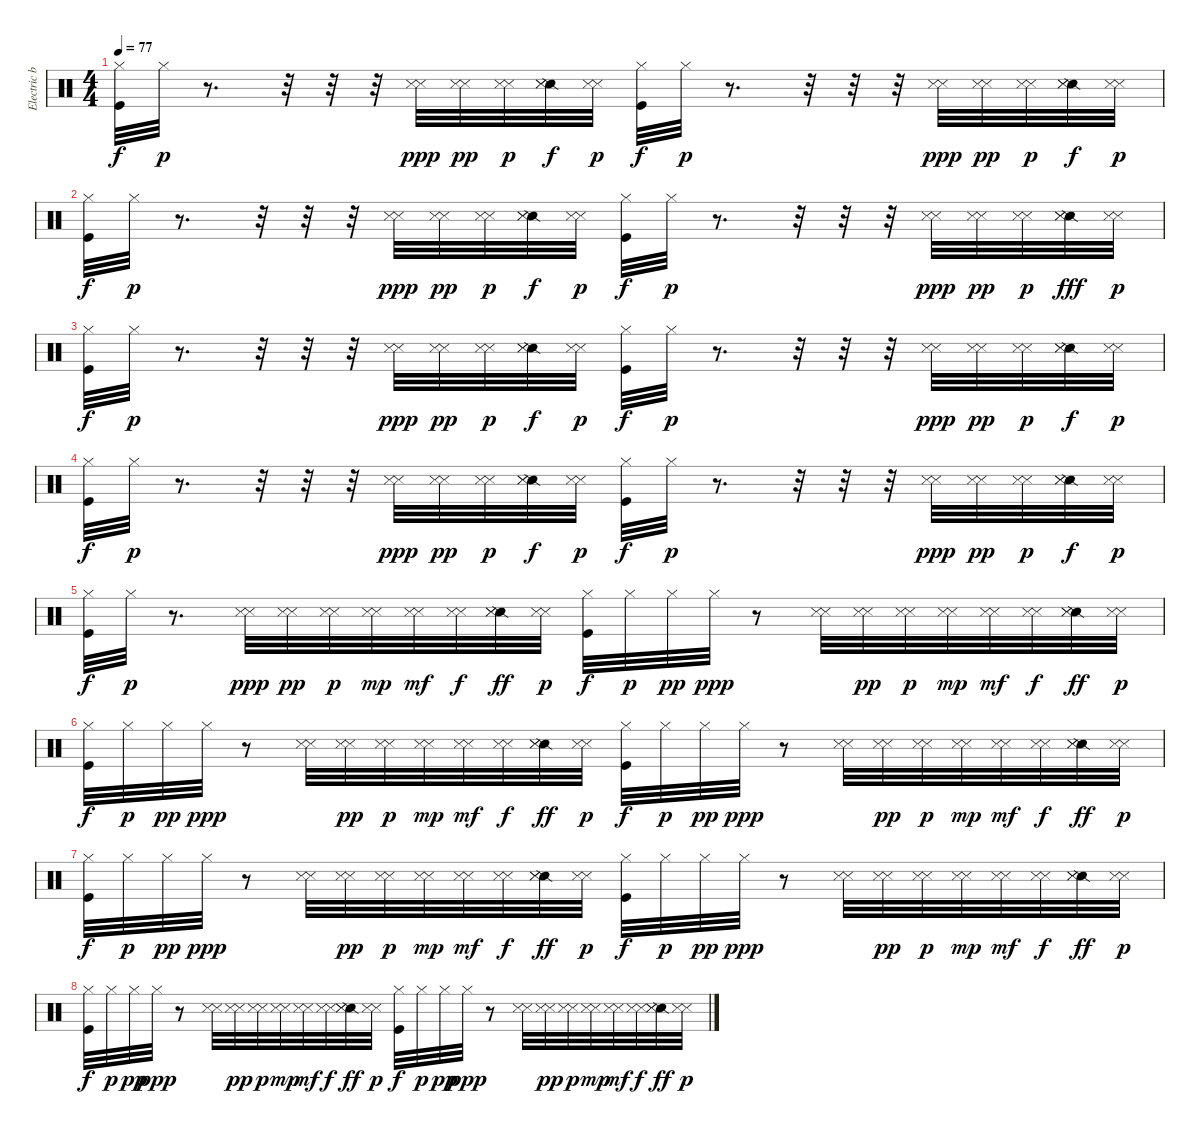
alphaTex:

\track ("Electric beat" "Electric b") {instrument percussion}
\staff {score}
\articulation defaults
\ts (4 4)
\tempo 77
\clef neutral
\ks c
("Hi-Hat (closed)" "Kick (hit)").32{dy f} "Hi-Hat (closed)".32{dy p} r.8{d} r.32 r.32 r.32 ("Snare (side stick) 3" "Metronome (hit)").32{dy ppp} ("Snare (side stick) 3" "Metronome (hit)").32{dy pp} ("Snare (side stick) 3" "Metronome (hit)").32{dy p} ("Snare (side stick) 2" "Snare (side stick) 3" "Metronome (hit)").32{dy f} ("Snare (side stick) 3" "Metronome (hit)").32{dy p} ("Hi-Hat (closed)" "Kick (hit)").32{dy f} "Hi-Hat (closed)".32{dy p} r.8{d} r.32 r.32 r.32 ("Snare (side stick) 3" "Metronome (hit)").32{dy ppp} ("Snare (side stick) 3" "Metronome (hit)").32{dy pp} ("Snare (side stick) 3" "Metronome (hit)").32{dy p} ("Snare (side stick) 2" "Snare (side stick) 3" "Metronome (hit)").32{dy f} ("Snare (side stick) 3" "Metronome (hit)").32{dy p} |
("Hi-Hat (closed)" "Kick (hit)").32{dy f} "Hi-Hat (closed)".32{dy p} r.8{d} r.32 r.32 r.32 ("Snare (side stick) 3" "Metronome (hit)").32{dy ppp} ("Snare (side stick) 3" "Metronome (hit)").32{dy pp} ("Snare (side stick) 3" "Metronome (hit)").32{dy p} ("Snare (side stick) 2" "Snare (side stick) 3" "Metronome (hit)").32{dy f} ("Snare (side stick) 3" "Metronome (hit)").32{dy p} ("Hi-Hat (closed)" "Kick (hit)").32{dy f} "Hi-Hat (closed)".32{dy p} r.8{d} r.32 r.32 r.32 ("Snare (side stick) 3" "Metronome (hit)").32{dy ppp} ("Snare (side stick) 3" "Metronome (hit)").32{dy pp} ("Snare (side stick) 3" "Metronome (hit)").32{dy p} ("Snare (side stick) 2" "Snare (side stick) 3" "Metronome (hit)").32{dy fff} ("Snare (side stick) 3" "Metronome (hit)").32{dy p} |
("Hi-Hat (closed)" "Kick (hit)").32{dy f} "Hi-Hat (closed)".32{dy p} r.8{d} r.32 r.32 r.32 ("Snare (side stick) 3" "Metronome (hit)").32{dy ppp} ("Snare (side stick) 3" "Metronome (hit)").32{dy pp} ("Snare (side stick) 3" "Metronome (hit)").32{dy p} ("Snare (side stick) 2" "Snare (side stick) 3" "Metronome (hit)").32{dy f} ("Snare (side stick) 3" "Metronome (hit)").32{dy p} ("Hi-Hat (closed)" "Kick (hit)").32{dy f} "Hi-Hat (closed)".32{dy p} r.8{d} r.32 r.32 r.32 ("Snare (side stick) 3" "Metronome (hit)").32{dy ppp} ("Snare (side stick) 3" "Metronome (hit)").32{dy pp} ("Snare (side stick) 3" "Metronome (hit)").32{dy p} ("Snare (side stick) 2" "Snare (side stick) 3" "Metronome (hit)").32{dy f} ("Snare (side stick) 3" "Metronome (hit)").32{dy p} |
("Hi-Hat (closed)" "Kick (hit)").32{dy f} "Hi-Hat (closed)".32{dy p} r.8{d} r.32 r.32 r.32 ("Snare (side stick) 3" "Metronome (hit)").32{dy ppp} ("Snare (side stick) 3" "Metronome (hit)").32{dy pp} ("Snare (side stick) 3" "Metronome (hit)").32{dy p} ("Snare (side stick) 2" "Snare (side stick) 3" "Metronome (hit)").32{dy f} ("Snare (side stick) 3" "Metronome (hit)").32{dy p} ("Hi-Hat (closed)" "Kick (hit)").32{dy f} "Hi-Hat (closed)".32{dy p} r.8{d} r.32 r.32 r.32 ("Snare (side stick) 3" "Metronome (hit)").32{dy ppp} ("Snare (side stick) 3" "Metronome (hit)").32{dy pp} ("Snare (side stick) 3" "Metronome (hit)").32{dy p} ("Snare (side stick) 2" "Snare (side stick) 3" "Metronome (hit)").32{dy f} ("Snare (side stick) 3" "Metronome (hit)").32{dy p} |
("Hi-Hat (closed)" "Kick (hit)").32{dy f} "Hi-Hat (closed)".32{dy p} r.8{d} ("Snare (side stick) 3" "Metronome (hit)").32{dy ppp} ("Snare (side stick) 3" "Metronome (hit)").32{dy pp} ("Snare (side stick) 3" "Metronome (hit)").32{dy p} ("Snare (side stick) 3" "Metronome (hit)").32{dy mp} ("Snare (side stick) 3" "Metronome (hit)").32{dy mf} ("Snare (side stick) 3" "Metronome (hit)").32{dy f} ("Snare (side stick) 2" "Snare (side stick) 3" "Metronome (hit)").32{dy ff} ("Snare (side stick) 3" "Metronome (hit)").32{dy p} ("Hi-Hat (closed)" "Kick (hit)").32{dy f} "Hi-Hat (closed)".32{dy p} "Hi-Hat (closed)".32{dy pp} "Hi-Hat (closed)".32{dy ppp} r.8 ("Snare (side stick) 3" "Metronome (hit)").32 ("Snare (side stick) 3" "Metronome (hit)").32{dy pp} ("Snare (side stick) 3" "Metronome (hit)").32{dy p} ("Snare (side stick) 3" "Metronome (hit)").32{dy mp} ("Snare (side stick) 3" "Metronome (hit)").32{dy mf} ("Snare (side stick) 3" "Metronome (hit)").32{dy f} ("Snare (side stick) 2" "Snare (side stick) 3" "Metronome (hit)").32{dy ff} ("Snare (side stick) 3" "Metronome (hit)").32{dy p} |
("Hi-Hat (closed)" "Kick (hit)").32{dy f} "Hi-Hat (closed)".32{dy p} "Hi-Hat (closed)".32{dy pp} "Hi-Hat (closed)".32{dy ppp} r.8 ("Snare (side stick) 3" "Metronome (hit)").32 ("Snare (side stick) 3" "Metronome (hit)").32{dy pp} ("Snare (side stick) 3" "Metronome (hit)").32{dy p} ("Snare (side stick) 3" "Metronome (hit)").32{dy mp} ("Snare (side stick) 3" "Metronome (hit)").32{dy mf} ("Snare (side stick) 3" "Metronome (hit)").32{dy f} ("Snare (side stick) 2" "Snare (side stick) 3" "Metronome (hit)").32{dy ff} ("Snare (side stick) 3" "Metronome (hit)").32{dy p} ("Hi-Hat (closed)" "Kick (hit)").32{dy f} "Hi-Hat (closed)".32{dy p} "Hi-Hat (closed)".32{dy pp} "Hi-Hat (closed)".32{dy ppp} r.8 ("Snare (side stick) 3" "Metronome (hit)").32 ("Snare (side stick) 3" "Metronome (hit)").32{dy pp} ("Snare (side stick) 3" "Metronome (hit)").32{dy p} ("Snare (side stick) 3" "Metronome (hit)").32{dy mp} ("Snare (side stick) 3" "Metronome (hit)").32{dy mf} ("Snare (side stick) 3" "Metronome (hit)").32{dy f} ("Snare (side stick) 2" "Snare (side stick) 3" "Metronome (hit)").32{dy ff} ("Snare (side stick) 3" "Metronome (hit)").32{dy p} |
("Hi-Hat (closed)" "Kick (hit)").32{dy f} "Hi-Hat (closed)".32{dy p} "Hi-Hat (closed)".32{dy pp} "Hi-Hat (closed)".32{dy ppp} r.8 ("Snare (side stick) 3" "Metronome (hit)").32 ("Snare (side stick) 3" "Metronome (hit)").32{dy pp} ("Snare (side stick) 3" "Metronome (hit)").32{dy p} ("Snare (side stick) 3" "Metronome (hit)").32{dy mp} ("Snare (side stick) 3" "Metronome (hit)").32{dy mf} ("Snare (side stick) 3" "Metronome (hit)").32{dy f} ("Snare (side stick) 2" "Snare (side stick) 3" "Metronome (hit)").32{dy ff} ("Snare (side stick) 3" "Metronome (hit)").32{dy p} ("Hi-Hat (closed)" "Kick (hit)").32{dy f} "Hi-Hat (closed)".32{dy p} "Hi-Hat (closed)".32{dy pp} "Hi-Hat (closed)".32{dy ppp} r.8 ("Snare (side stick) 3" "Metronome (hit)").32 ("Snare (side stick) 3" "Metronome (hit)").32{dy pp} ("Snare (side stick) 3" "Metronome (hit)").32{dy p} ("Snare (side stick) 3" "Metronome (hit)").32{dy mp} ("Snare (side stick) 3" "Metronome (hit)").32{dy mf} ("Snare (side stick) 3" "Metronome (hit)").32{dy f} ("Snare (side stick) 2" "Snare (side stick) 3" "Metronome (hit)").32{dy ff} ("Snare (side stick) 3" "Metronome (hit)").32{dy p} |
("Hi-Hat (closed)" "Kick (hit)").32{dy f} "Hi-Hat (closed)".32{dy p} "Hi-Hat (closed)".32{dy pp} "Hi-Hat (closed)".32{dy ppp} r.8 ("Snare (side stick) 3" "Metronome (hit)").32 ("Snare (side stick) 3" "Metronome (hit)").32{dy pp} ("Snare (side stick) 3" "Metronome (hit)").32{dy p} ("Snare (side stick) 3" "Metronome (hit)").32{dy mp} ("Snare (side stick) 3" "Metronome (hit)").32{dy mf} ("Snare (side stick) 3" "Metronome (hit)").32{dy f} ("Snare (side stick) 2" "Snare (side stick) 3" "Metronome (hit)").32{dy ff} ("Snare (side stick) 3" "Metronome (hit)").32{dy p} ("Hi-Hat (closed)" "Kick (hit)").32{dy f} "Hi-Hat (closed)".32{dy p} "Hi-Hat (closed)".32{dy pp} "Hi-Hat (closed)".32{dy ppp} r.8 ("Snare (side stick) 3" "Metronome (hit)").32 ("Snare (side stick) 3" "Metronome (hit)").32{dy pp} ("Snare (side stick) 3" "Metronome (hit)").32{dy p} ("Snare (side stick) 3" "Metronome (hit)").32{dy mp} ("Snare (side stick) 3" "Metronome (hit)").32{dy mf} ("Snare (side stick) 3" "Metronome (hit)").32{dy f} ("Snare (side stick) 2" "Snare (side stick) 3" "Metronome (hit)").32{dy ff} ("Snare (side stick) 3" "Metronome (hit)").32{dy p}
